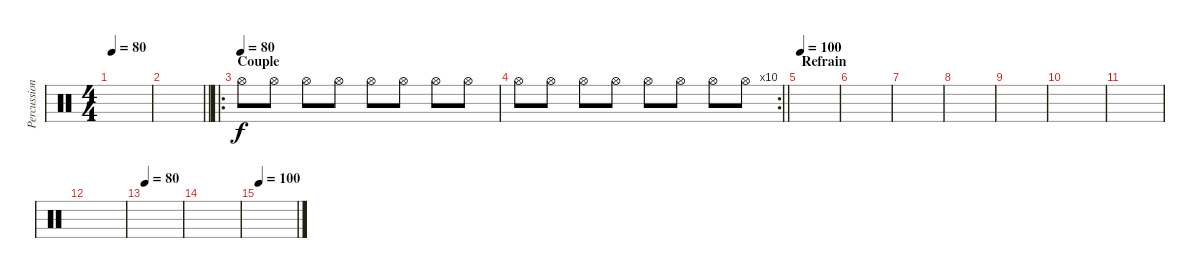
\track ("Percussion" "Percussion") {instrument percussion}
\staff {score}
\articulation defaults
\ts (4 4)
\tempo 80
\clef neutral
\ks c
|
\barLineRight lightlight
|
\ro
\section ("" "Couple")
\tempo (80)
"Hi-Hat (open)".8 "Hi-Hat (open)".8 "Hi-Hat (open)".8 "Hi-Hat (open)".8 "Hi-Hat (open)".8 "Hi-Hat (open)".8 "Hi-Hat (open)".8 "Hi-Hat (open)".8 |
\rc 10
\barLineRight lightlight "Hi-Hat (open)".8 "Hi-Hat (open)".8 "Hi-Hat (open)".8 "Hi-Hat (open)".8 "Hi-Hat (open)".8 "Hi-Hat (open)".8 "Hi-Hat (open)".8 "Hi-Hat (open)".8
|
\section ("" "Refrain")
\tempo 100
|
|
|
|
|
|
|
|
\tempo 80
|
|
\tempo 100
